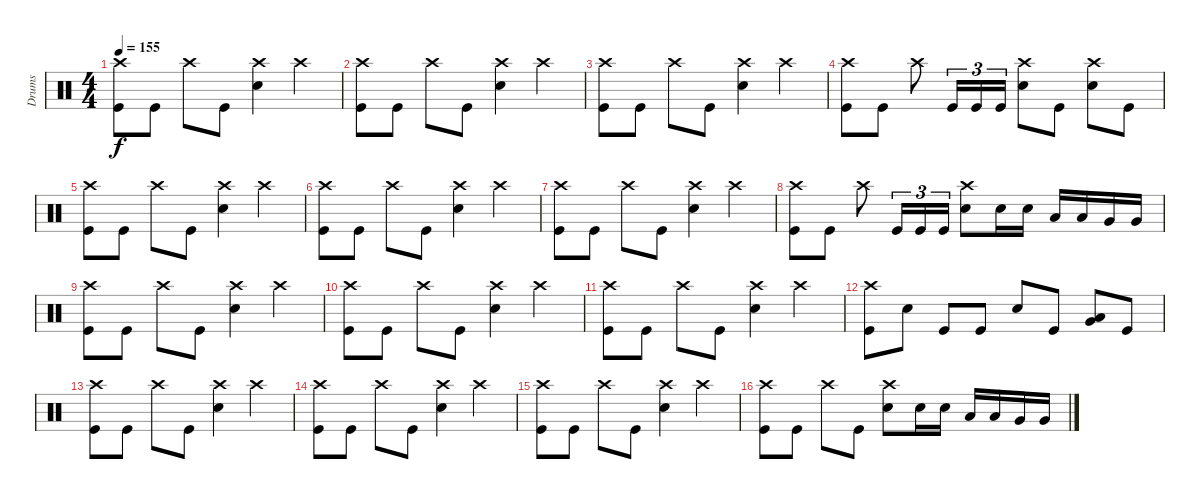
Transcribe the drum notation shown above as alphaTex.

\track ("Drums" "Drums") {instrument percussion}
\staff {score}
\articulation defaults
\ts (4 4)
\tempo 155
\clef neutral
\ks c
("Crash high (hit)" "Kick (hit)").8{dy f} "Kick (hit)".8 "Crash high (hit)".8 "Kick (hit)".8 ("Crash high (hit)" "Snare (hit) 2").4 "Crash high (hit)".4 |
("Crash high (hit)" "Kick (hit)").8 "Kick (hit)".8 "Crash high (hit)".8 "Kick (hit)".8 ("Crash high (hit)" "Snare (hit) 2").4 "Crash high (hit)".4 |
("Crash high (hit)" "Kick (hit)").8 "Kick (hit)".8 "Crash high (hit)".8 "Kick (hit)".8 ("Crash high (hit)" "Snare (hit) 2").4 "Crash high (hit)".4 |
("Crash high (hit)" "Kick (hit)").8 "Kick (hit)".8 "Crash high (hit)".8 "Kick (hit)".16{tu (3 2)} "Kick (hit)".16{tu (3 2)} "Kick (hit)".16{tu (3 2)} ("Crash high (hit)" "Snare (hit) 2").8 "Kick (hit)".8 ("Crash high (hit)" "Snare (hit) 2").8 "Kick (hit)".8 |
("Crash high (hit)" "Kick (hit)").8 "Kick (hit)".8 "Crash high (hit)".8 "Kick (hit)".8 ("Crash high (hit)" "Snare (hit) 2").4 "Crash high (hit)".4 |
("Crash high (hit)" "Kick (hit)").8 "Kick (hit)".8 "Crash high (hit)".8 "Kick (hit)".8 ("Crash high (hit)" "Snare (hit) 2").4 "Crash high (hit)".4 |
("Crash high (hit)" "Kick (hit)").8 "Kick (hit)".8 "Crash high (hit)".8 "Kick (hit)".8 ("Crash high (hit)" "Snare (hit) 2").4 "Crash high (hit)".4 |
("Crash high (hit)" "Kick (hit)").8 "Kick (hit)".8 "Crash high (hit)".8 "Kick (hit)".16{tu (3 2)} "Kick (hit)".16{tu (3 2)} "Kick (hit)".16{tu (3 2)} ("Crash high (hit)" "Snare (hit) 2").8 "Snare (hit) 2".16 "Snare (hit) 2".16 "Low Tom (hit)".16 "Low Tom (hit)".16 "Very Low Tom (hit)".16 "Very Low Tom (hit)".16 |
("Crash high (hit)" "Kick (hit)").8 "Kick (hit)".8 "Crash high (hit)".8 "Kick (hit)".8 ("Crash high (hit)" "Snare (hit) 2").4 "Crash high (hit)".4 |
("Crash high (hit)" "Kick (hit)").8 "Kick (hit)".8 "Crash high (hit)".8 "Kick (hit)".8 ("Crash high (hit)" "Snare (hit) 2").4 "Crash high (hit)".4 |
("Crash high (hit)" "Kick (hit)").8 "Kick (hit)".8 "Crash high (hit)".8 "Kick (hit)".8 ("Crash high (hit)" "Snare (hit) 2").4 "Crash high (hit)".4 |
("Crash high (hit)" "Kick (hit)").8 "Snare (hit) 2".8 "Kick (hit)".8 "Kick (hit)".8 "Snare (hit) 2".8 "Kick (hit)".8 ("Very Low Tom (hit)" "Low Tom (hit)").8 "Kick (hit)".8 |
("Crash high (hit)" "Kick (hit)").8 "Kick (hit)".8 "Crash high (hit)".8 "Kick (hit)".8 ("Crash high (hit)" "Snare (hit) 2").4 "Crash high (hit)".4 |
("Crash high (hit)" "Kick (hit)").8 "Kick (hit)".8 "Crash high (hit)".8 "Kick (hit)".8 ("Crash high (hit)" "Snare (hit) 2").4 "Crash high (hit)".4 |
("Crash high (hit)" "Kick (hit)").8 "Kick (hit)".8 "Crash high (hit)".8 "Kick (hit)".8 ("Crash high (hit)" "Snare (hit) 2").4 "Crash high (hit)".4 |
("Crash high (hit)" "Kick (hit)").8 "Kick (hit)".8 "Crash high (hit)".8 "Kick (hit)".8 ("Crash high (hit)" "Snare (hit) 2").8 "Snare (hit) 2".16 "Snare (hit) 2".16 "Low Tom (hit)".16 "Low Tom (hit)".16 "Very Low Tom (hit)".16 "Very Low Tom (hit)".16
